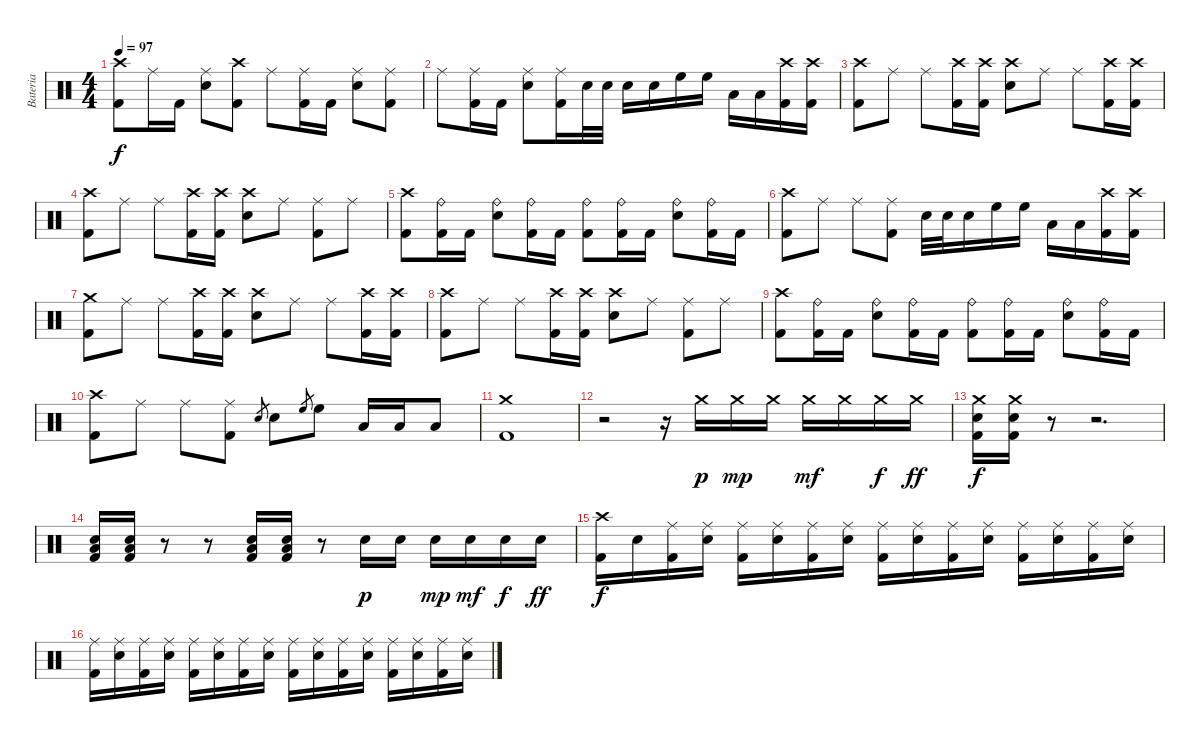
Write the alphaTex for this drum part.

\track ("Bateria" "Bateria") {instrument percussion}
\staff {score}
\articulation defaults
\ts (4 4)
\tempo 97
\clef neutral
\ks c
("Crash high (hit)" "Kick (hit) 2").8{dy f} "Ride (middle)".16 "Kick (hit) 2".16 ("Ride (middle)" "Electric Snare (hit)").8 ("Crash high (hit)" "Kick (hit) 2").8 "Ride (middle)".8 ("Ride (middle)" "Kick (hit) 2").16 "Kick (hit) 2".16 ("Ride (middle)" "Electric Snare (hit)").8 ("Ride (middle)" "Kick (hit) 2").8 |
"Ride (middle)".8 ("Ride (middle)" "Kick (hit) 2").16 "Kick (hit) 2".16 ("Ride (middle)" "Electric Snare (hit)").8 ("Ride (middle)" "Kick (hit) 2").16 "Electric Snare (hit)".32 "Electric Snare (hit)".32 "Electric Snare (hit)".16 "Electric Snare (hit)".16 "High Floor Tom (hit)".16 "High Floor Tom (hit)".16 "Low Tom (hit)".16 "Low Tom (hit)".16 ("Crash high (hit)" "Kick (hit) 2").16 ("Crash high (hit)" "Kick (hit) 2").16 |
("Crash high (hit)" "Kick (hit) 2").8 "Ride (middle)".8 "Ride (middle)".8 ("Crash high (hit)" "Kick (hit) 2").16 ("Crash high (hit)" "Kick (hit) 2").16 ("Crash high (hit)" "Electric Snare (hit)").8 "Ride (middle)".8 "Ride (middle)".8 ("Crash high (hit)" "Kick (hit) 2").16 ("Crash high (hit)" "Kick (hit) 2").16 |
("Crash high (hit)" "Kick (hit) 2").8 "Ride (middle)".8 "Ride (middle)".8 ("Crash high (hit)" "Kick (hit) 2").16 ("Crash high (hit)" "Kick (hit) 2").16 ("Crash high (hit)" "Electric Snare (hit)").8 "Ride (middle)".8 ("Ride (middle)" "Kick (hit) 2").8 "Ride (middle)".8 |
("Crash high (hit)" "Kick (hit) 2").8 ("Ride (bell)" "Kick (hit) 2").16 "Kick (hit) 2".16 ("Ride (bell)" "Electric Snare (hit)").8 ("Ride (bell)" "Kick (hit) 2").16 "Kick (hit) 2".16 ("Ride (bell)" "Kick (hit) 2").8 ("Ride (bell)" "Kick (hit) 2").16 "Kick (hit) 2".16 ("Ride (bell)" "Electric Snare (hit)").8 ("Ride (bell)" "Kick (hit) 2").16 "Kick (hit) 2".16 |
("Crash high (hit)" "Kick (hit) 2").8 "Ride (middle)".8 "Ride (middle)".8 ("Ride (middle)" "Kick (hit) 2").8 "Electric Snare (hit)".32 "Electric Snare (hit)".32 "Electric Snare (hit)".16 "High Floor Tom (hit)".16 "High Floor Tom (hit)".16 "Low Tom (hit)".16 "Low Tom (hit)".16 ("Crash high (hit)" "Kick (hit) 2").16 ("Crash high (hit)" "Kick (hit) 2").16 |
("Crash medium (hit)" "Kick (hit) 2").8 "Ride (middle)".8 "Ride (middle)".8 ("Crash high (hit)" "Kick (hit) 2").16 ("Crash high (hit)" "Kick (hit) 2").16 ("Crash high (hit)" "Electric Snare (hit)").8 "Ride (middle)".8 "Ride (middle)".8 ("Crash high (hit)" "Kick (hit) 2").16 ("Crash high (hit)" "Kick (hit) 2").16 |
("Crash high (hit)" "Kick (hit) 2").8 "Ride (middle)".8 "Ride (middle)".8 ("Crash high (hit)" "Kick (hit) 2").16 ("Crash high (hit)" "Kick (hit) 2").16 ("Crash high (hit)" "Electric Snare (hit)").8 "Ride (middle)".8 ("Ride (middle)" "Kick (hit) 2").8 "Ride (middle)".8 |
("Crash high (hit)" "Kick (hit) 2").8 ("Ride (bell)" "Kick (hit) 2").16 "Kick (hit) 2".16 ("Ride (bell)" "Electric Snare (hit)").8 ("Ride (bell)" "Kick (hit) 2").16 "Kick (hit) 2".16 ("Ride (bell)" "Kick (hit) 2").8 ("Ride (bell)" "Kick (hit) 2").16 "Kick (hit) 2".16 ("Ride (bell)" "Electric Snare (hit)").8 ("Ride (bell)" "Kick (hit) 2").16 "Kick (hit) 2".16 |
("Crash high (hit)" "Kick (hit) 2").8 "Ride (middle)".8 "Ride (middle)".8 ("Ride (middle)" "Kick (hit) 2").8 "Electric Snare (hit)".8{gr} "Electric Snare (hit)".8 "High Floor Tom (hit)".8{gr} "High Floor Tom (hit)".8 "Low Tom (hit)".16 "Low Tom (hit)".16 "Low Floor Tom (hit)".8 |
("Crash medium (hit)" "Kick (hit) 2").1 |
r.2 r.16 "Crash medium (hit)".16{dy p} "Crash medium (hit)".16{dy mp} "Crash medium (hit)".16 "Crash medium (hit)".16{dy mf} "Crash medium (hit)".16 "Crash medium (hit)".16{dy f} "Crash medium (hit)".16{dy ff} |
("Crash medium (hit)" "Electric Snare (hit)" "Kick (hit) 2").16{dy f} ("Crash medium (hit)" "Electric Snare (hit)" "Kick (hit) 2").16 r.8 r.2{d} |
("Low Floor Tom (hit)" "Electric Snare (hit)" "Kick (hit) 2").16 ("Low Floor Tom (hit)" "Electric Snare (hit)" "Kick (hit) 2").16 r.8 r.8 ("Low Floor Tom (hit)" "Electric Snare (hit)" "Kick (hit) 2").16 ("Low Floor Tom (hit)" "Electric Snare (hit)" "Kick (hit) 2").16 r.8 "Electric Snare (hit)".16{dy p} "Electric Snare (hit)".16 "Electric Snare (hit)".16{dy mp} "Electric Snare (hit)".16{dy mf} "Electric Snare (hit)".16{dy f} "Electric Snare (hit)".16{dy ff} |
("Crash high (hit)" "Kick (hit) 2").16{dy f} "Electric Snare (hit)".16 ("Ride (middle)" "Kick (hit) 2").16 ("Ride (middle)" "Electric Snare (hit)").16 ("Ride (middle)" "Kick (hit) 2").16 ("Ride (middle)" "Electric Snare (hit)").16 ("Ride (middle)" "Kick (hit) 2").16 ("Ride (middle)" "Electric Snare (hit)").16 ("Ride (middle)" "Kick (hit) 2").16 ("Ride (middle)" "Electric Snare (hit)").16 ("Ride (middle)" "Kick (hit) 2").16 ("Ride (middle)" "Electric Snare (hit)").16 ("Ride (middle)" "Kick (hit) 2").16 ("Ride (middle)" "Electric Snare (hit)").16 ("Ride (middle)" "Kick (hit) 2").16 ("Ride (middle)" "Electric Snare (hit)").16 |
("Ride (middle)" "Kick (hit) 2").16 ("Ride (middle)" "Electric Snare (hit)").16 ("Ride (middle)" "Kick (hit) 2").16 ("Ride (middle)" "Electric Snare (hit)").16 ("Ride (middle)" "Kick (hit) 2").16 ("Ride (middle)" "Electric Snare (hit)").16 ("Ride (middle)" "Kick (hit) 2").16 ("Ride (middle)" "Electric Snare (hit)").16 ("Ride (middle)" "Kick (hit) 2").16 ("Ride (middle)" "Electric Snare (hit)").16 ("Ride (middle)" "Kick (hit) 2").16 ("Ride (middle)" "Electric Snare (hit)").16 ("Ride (middle)" "Kick (hit) 2").16 ("Ride (middle)" "Electric Snare (hit)").16 ("Ride (middle)" "Kick (hit) 2").16 ("Ride (middle)" "Electric Snare (hit)").16
